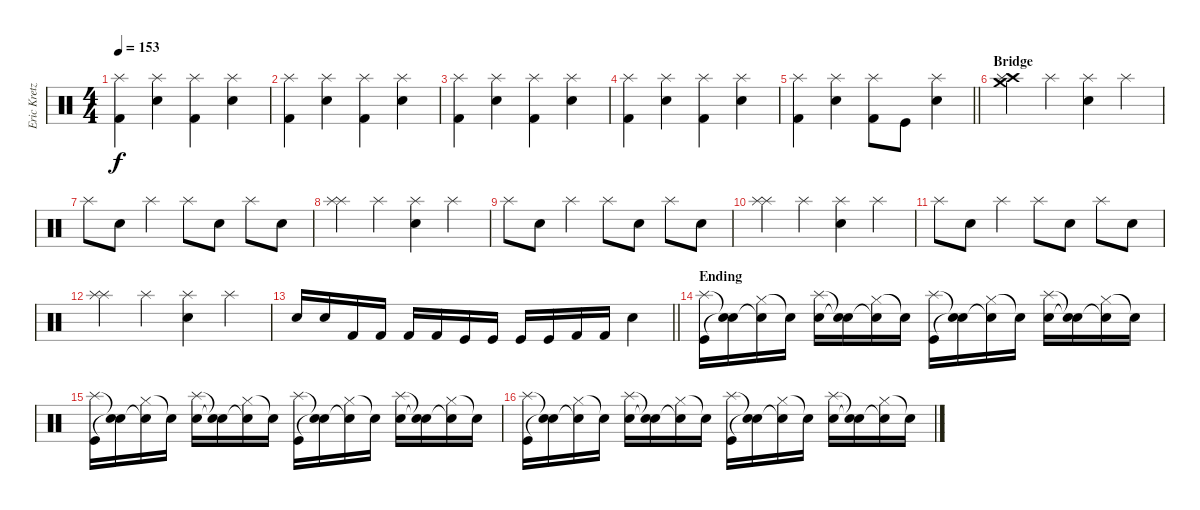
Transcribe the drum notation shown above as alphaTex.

\track ("Eric Kretz - Drums" "Eric Kretz") {instrument percussion}
\staff {score}
\articulation defaults
\ts (4 4)
\tempo 153
\clef neutral
\ks c
("Kick (hit) 2" "Splash (hit)").4{dy f} ("Snare (hit) 2" "Splash (hit)").4 ("Kick (hit) 2" "Splash (hit)").4 ("Snare (hit) 2" "Splash (hit)").4 |
("Kick (hit) 2" "Splash (hit)").4 ("Snare (hit) 2" "Splash (hit)").4 ("Kick (hit) 2" "Splash (hit)").4 ("Snare (hit) 2" "Splash (hit)").4 |
("Kick (hit) 2" "Splash (hit)").4 ("Snare (hit) 2" "Splash (hit)").4 ("Kick (hit) 2" "Splash (hit)").4 ("Snare (hit) 2" "Splash (hit)").4 |
("Kick (hit) 2" "Splash (hit)").4 ("Snare (hit) 2" "Splash (hit)").4 ("Kick (hit) 2" "Splash (hit)").4 ("Snare (hit) 2" "Splash (hit)").4 |
\barLineRight lightlight
("Splash (hit)" "Kick (hit) 2").4 ("Splash (hit)" "Snare (hit) 2").4 ("Splash (hit)" "Kick (hit) 2").8 "Kick (hit)".8 ("Splash (hit)" "Snare (hit) 2").4 |
\section ("" "Bridge")
("Crash high (hit)" "Crash medium (hit)" "Splash (hit)").4 "Splash (hit)".4 ("Splash (hit)" "Snare (hit) 2").4 "Splash (hit)".4 |
"Splash (hit)".8 "Snare (hit) 2".8 "Splash (hit)".4 "Splash (hit)".8 "Snare (hit) 2".8 "Splash (hit)".8 "Snare (hit) 2".8 |
("Splash (hit)" "Splash (hit)").4 "Splash (hit)".4 ("Splash (hit)" "Snare (hit) 2").4 "Splash (hit)".4 |
"Splash (hit)".8 "Snare (hit) 2".8 "Splash (hit)".4 "Splash (hit)".8 "Snare (hit) 2".8 "Splash (hit)".8 "Snare (hit) 2".8 |
("Splash (hit)" "Splash (hit)").4 "Splash (hit)".4 ("Splash (hit)" "Snare (hit) 2").4 "Splash (hit)".4 |
"Splash (hit)".8 "Snare (hit) 2".8 "Splash (hit)".4 "Splash (hit)".8 "Snare (hit) 2".8 "Splash (hit)".8 "Snare (hit) 2".8 |
("Splash (hit)" "Splash (hit)").4 "Splash (hit)".4 ("Splash (hit)" "Snare (hit) 2").4 "Splash (hit)".4 |
\barLineRight lightlight "Snare (hit) 2".16 "Snare (hit) 2".16 "Kick (hit) 2".16 "Kick (hit) 2".16 "Kick (hit) 2".16 "Kick (hit) 2".16 "Kick (hit)".16 "Kick (hit)".16 "Kick (hit)".16 "Kick (hit)".16 "Kick (hit) 2".16 "Kick (hit) 2".16 "Snare (hit) 2".4
|
\section ("" "Ending")
("Kick (hit)" "Splash (hit)").16 ("Snare (hit)"{t} "Snare (hit)"{t}).16 ("Hi-Hat (closed)" "Snare (hit)"{t}).16 "Snare (hit)"{t}.16 ("Snare (hit) 2" "Splash (hit)").16 ("Snare (hit)"{t} "Snare (hit)"{t}).16 ("Hi-Hat (closed)" "Snare (hit)"{t}).16 "Snare (hit)"{t}.16 ("Kick (hit)" "Splash (hit)").16 ("Snare (hit)"{t} "Snare (hit)"{t}).16 ("Hi-Hat (closed)" "Snare (hit)"{t}).16 "Snare (hit)"{t}.16 ("Snare (hit) 2" "Splash (hit)").16 ("Snare (hit)"{t} "Snare (hit)"{t}).16 ("Hi-Hat (closed)" "Snare (hit)"{t}).16 "Snare (hit)"{t}.16 |
("Kick (hit)" "Splash (hit)").16 ("Snare (hit)"{t} "Snare (hit)"{t}).16 ("Hi-Hat (closed)" "Snare (hit)"{t}).16 "Snare (hit)"{t}.16 ("Snare (hit) 2" "Splash (hit)").16 ("Snare (hit)"{t} "Snare (hit)"{t}).16 ("Hi-Hat (closed)" "Snare (hit)"{t}).16 "Snare (hit)"{t}.16 ("Kick (hit)" "Splash (hit)").16 ("Snare (hit)"{t} "Snare (hit)"{t}).16 ("Hi-Hat (closed)" "Snare (hit)"{t}).16 "Snare (hit)"{t}.16 ("Snare (hit) 2" "Splash (hit)").16 ("Snare (hit)"{t} "Snare (hit)"{t}).16 ("Hi-Hat (closed)" "Snare (hit)"{t}).16 "Snare (hit)"{t}.16 |
("Kick (hit)" "Splash (hit)").16 ("Snare (hit)"{t} "Snare (hit)"{t}).16 ("Hi-Hat (closed)" "Snare (hit)"{t}).16 "Snare (hit)"{t}.16 ("Snare (hit) 2" "Splash (hit)").16 ("Snare (hit)"{t} "Snare (hit)"{t}).16 ("Hi-Hat (closed)" "Snare (hit)"{t}).16 "Snare (hit)"{t}.16 ("Kick (hit)" "Splash (hit)").16 ("Snare (hit)"{t} "Snare (hit)"{t}).16 ("Hi-Hat (closed)" "Snare (hit)"{t}).16 "Snare (hit)"{t}.16 ("Snare (hit) 2" "Splash (hit)").16 ("Snare (hit)"{t} "Snare (hit)"{t}).16 ("Hi-Hat (closed)" "Snare (hit)"{t}).16 "Snare (hit)"{t}.16
